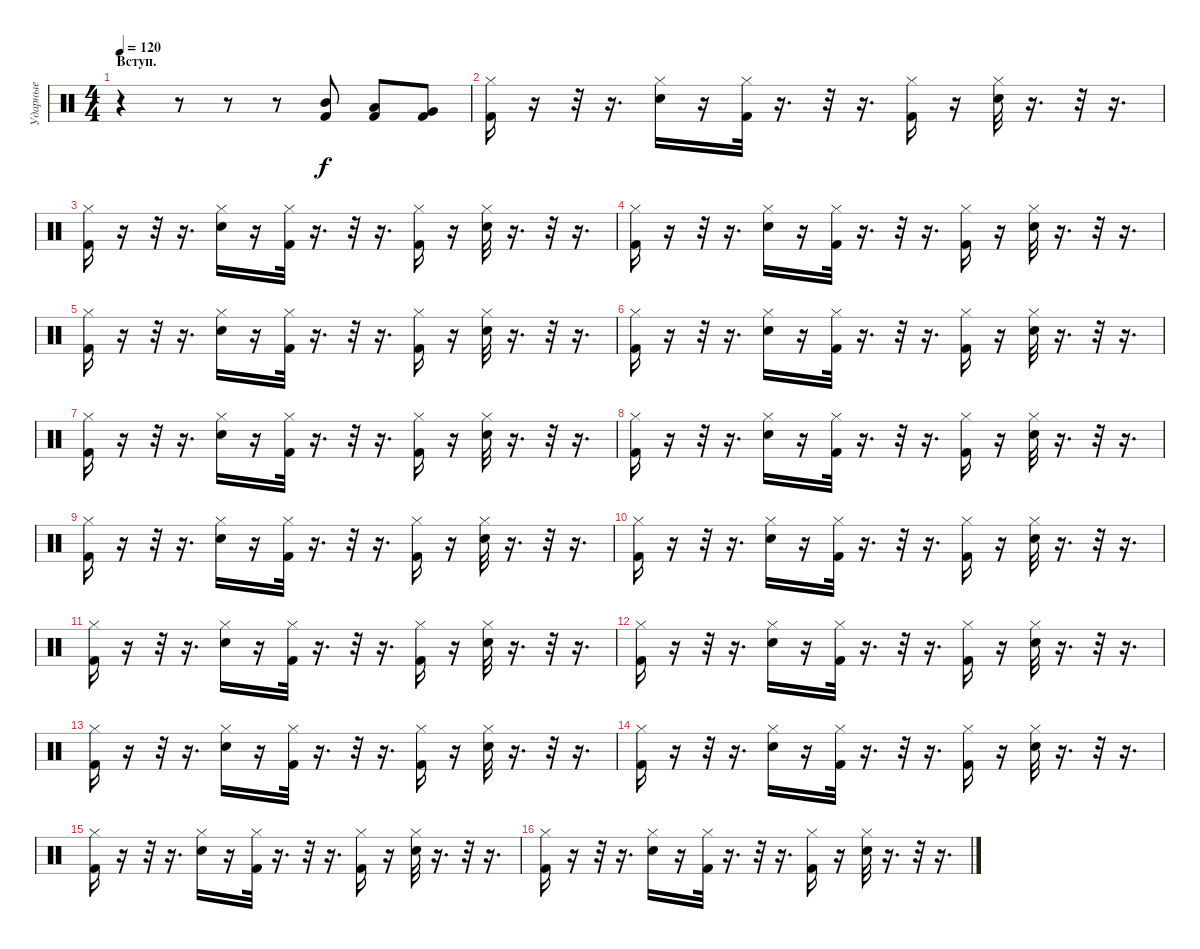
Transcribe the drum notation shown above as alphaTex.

\track ("Ударные" "Ударные") {instrument percussion}
\staff {score}
\articulation defaults
\ts (4 4)
\section ("" "Вступ.")
\tempo 120
\clef neutral
\ks c
r.4{dy f} r.8 r.8 r.8 ("Mid Tom (hit)" "Kick (hit) 2").8 ("Low Tom (hit)" "Kick (hit) 2").8 ("Very Low Tom (hit)" "Kick (hit) 2").8 |
("Hi-Hat (closed)" "Kick (hit) 2").16 r.16 r.32 r.16{d} ("Hi-Hat (closed)" "Electric Snare (hit)").16 r.16 ("Hi-Hat (closed)" "Kick (hit) 2").32 r.16{d} r.32 r.16{d} ("Kick (hit) 2" "Hi-Hat (closed)").16 r.16 ("Electric Snare (hit)" "Hi-Hat (closed)").32 r.16{d} r.32 r.16{d} |
("Hi-Hat (closed)" "Kick (hit) 2").16 r.16 r.32 r.16{d} ("Hi-Hat (closed)" "Electric Snare (hit)").16 r.16 ("Hi-Hat (closed)" "Kick (hit) 2").32 r.16{d} r.32 r.16{d} ("Kick (hit) 2" "Hi-Hat (closed)").16 r.16 ("Electric Snare (hit)" "Hi-Hat (closed)").32 r.16{d} r.32 r.16{d} |
("Hi-Hat (closed)" "Kick (hit) 2").16 r.16 r.32 r.16{d} ("Hi-Hat (closed)" "Electric Snare (hit)").16 r.16 ("Hi-Hat (closed)" "Kick (hit) 2").32 r.16{d} r.32 r.16{d} ("Kick (hit) 2" "Hi-Hat (closed)").16 r.16 ("Electric Snare (hit)" "Hi-Hat (closed)").32 r.16{d} r.32 r.16{d} |
("Hi-Hat (closed)" "Kick (hit) 2").16 r.16 r.32 r.16{d} ("Hi-Hat (closed)" "Electric Snare (hit)").16 r.16 ("Hi-Hat (closed)" "Kick (hit) 2").32 r.16{d} r.32 r.16{d} ("Kick (hit) 2" "Hi-Hat (closed)").16 r.16 ("Electric Snare (hit)" "Hi-Hat (closed)").32 r.16{d} r.32 r.16{d} |
("Hi-Hat (closed)" "Kick (hit) 2").16 r.16 r.32 r.16{d} ("Hi-Hat (closed)" "Electric Snare (hit)").16 r.16 ("Hi-Hat (closed)" "Kick (hit) 2").32 r.16{d} r.32 r.16{d} ("Kick (hit) 2" "Hi-Hat (closed)").16 r.16 ("Electric Snare (hit)" "Hi-Hat (closed)").32 r.16{d} r.32 r.16{d} |
("Hi-Hat (closed)" "Kick (hit) 2").16 r.16 r.32 r.16{d} ("Hi-Hat (closed)" "Electric Snare (hit)").16 r.16 ("Hi-Hat (closed)" "Kick (hit) 2").32 r.16{d} r.32 r.16{d} ("Kick (hit) 2" "Hi-Hat (closed)").16 r.16 ("Electric Snare (hit)" "Hi-Hat (closed)").32 r.16{d} r.32 r.16{d} |
("Hi-Hat (closed)" "Kick (hit) 2").16 r.16 r.32 r.16{d} ("Hi-Hat (closed)" "Electric Snare (hit)").16 r.16 ("Hi-Hat (closed)" "Kick (hit) 2").32 r.16{d} r.32 r.16{d} ("Kick (hit) 2" "Hi-Hat (closed)").16 r.16 ("Electric Snare (hit)" "Hi-Hat (closed)").32 r.16{d} r.32 r.16{d} |
("Hi-Hat (closed)" "Kick (hit) 2").16 r.16 r.32 r.16{d} ("Hi-Hat (closed)" "Electric Snare (hit)").16 r.16 ("Hi-Hat (closed)" "Kick (hit) 2").32 r.16{d} r.32 r.16{d} ("Kick (hit) 2" "Hi-Hat (closed)").16 r.16 ("Electric Snare (hit)" "Hi-Hat (closed)").32 r.16{d} r.32 r.16{d} |
("Hi-Hat (closed)" "Kick (hit) 2").16 r.16 r.32 r.16{d} ("Hi-Hat (closed)" "Electric Snare (hit)").16 r.16 ("Hi-Hat (closed)" "Kick (hit) 2").32 r.16{d} r.32 r.16{d} ("Kick (hit) 2" "Hi-Hat (closed)").16 r.16 ("Electric Snare (hit)" "Hi-Hat (closed)").32 r.16{d} r.32 r.16{d} |
("Hi-Hat (closed)" "Kick (hit) 2").16 r.16 r.32 r.16{d} ("Hi-Hat (closed)" "Electric Snare (hit)").16 r.16 ("Hi-Hat (closed)" "Kick (hit) 2").32 r.16{d} r.32 r.16{d} ("Kick (hit) 2" "Hi-Hat (closed)").16 r.16 ("Electric Snare (hit)" "Hi-Hat (closed)").32 r.16{d} r.32 r.16{d} |
("Hi-Hat (closed)" "Kick (hit) 2").16 r.16 r.32 r.16{d} ("Hi-Hat (closed)" "Electric Snare (hit)").16 r.16 ("Hi-Hat (closed)" "Kick (hit) 2").32 r.16{d} r.32 r.16{d} ("Kick (hit) 2" "Hi-Hat (closed)").16 r.16 ("Electric Snare (hit)" "Hi-Hat (closed)").32 r.16{d} r.32 r.16{d} |
("Hi-Hat (closed)" "Kick (hit) 2").16 r.16 r.32 r.16{d} ("Hi-Hat (closed)" "Electric Snare (hit)").16 r.16 ("Hi-Hat (closed)" "Kick (hit) 2").32 r.16{d} r.32 r.16{d} ("Kick (hit) 2" "Hi-Hat (closed)").16 r.16 ("Electric Snare (hit)" "Hi-Hat (closed)").32 r.16{d} r.32 r.16{d} |
("Hi-Hat (closed)" "Kick (hit) 2").16 r.16 r.32 r.16{d} ("Hi-Hat (closed)" "Electric Snare (hit)").16 r.16 ("Hi-Hat (closed)" "Kick (hit) 2").32 r.16{d} r.32 r.16{d} ("Kick (hit) 2" "Hi-Hat (closed)").16 r.16 ("Electric Snare (hit)" "Hi-Hat (closed)").32 r.16{d} r.32 r.16{d} |
("Hi-Hat (closed)" "Kick (hit) 2").16 r.16 r.32 r.16{d} ("Hi-Hat (closed)" "Electric Snare (hit)").16 r.16 ("Hi-Hat (closed)" "Kick (hit) 2").32 r.16{d} r.32 r.16{d} ("Kick (hit) 2" "Hi-Hat (closed)").16 r.16 ("Electric Snare (hit)" "Hi-Hat (closed)").32 r.16{d} r.32 r.16{d} |
("Hi-Hat (closed)" "Kick (hit) 2").16 r.16 r.32 r.16{d} ("Hi-Hat (closed)" "Electric Snare (hit)").16 r.16 ("Hi-Hat (closed)" "Kick (hit) 2").32 r.16{d} r.32 r.16{d} ("Kick (hit) 2" "Hi-Hat (closed)").16 r.16 ("Electric Snare (hit)" "Hi-Hat (closed)").32 r.16{d} r.32 r.16{d}
